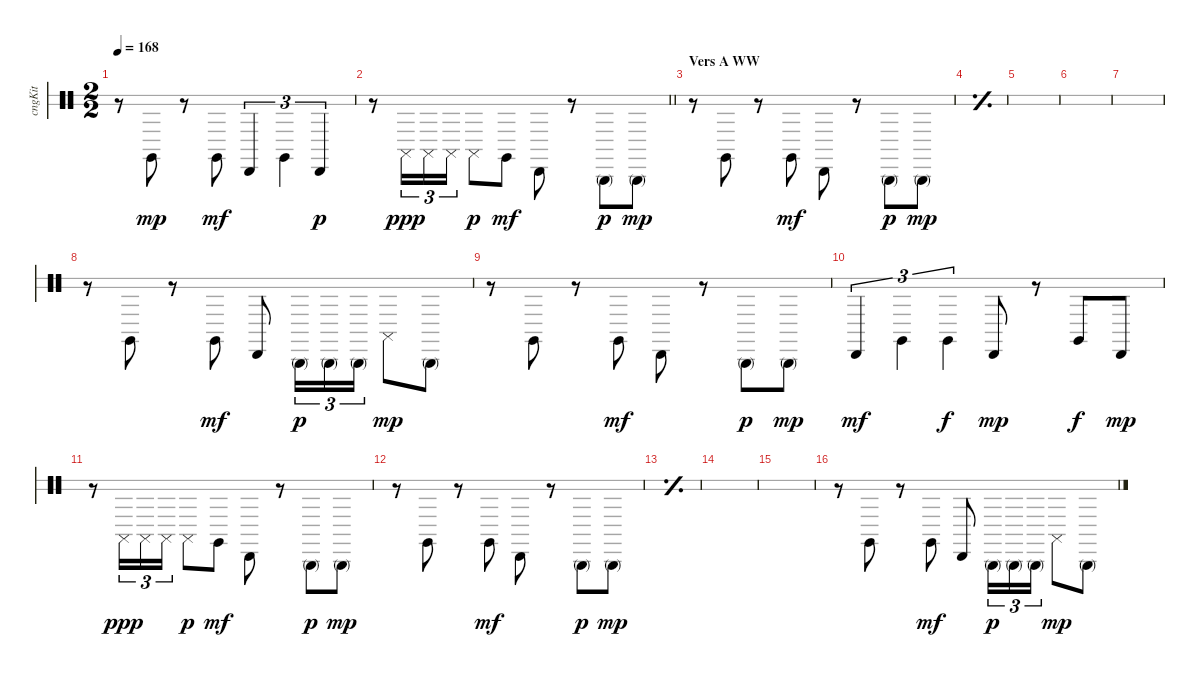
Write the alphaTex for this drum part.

\bracketExtendMode groupsimilarinstruments
\multiTrackTrackNamePolicy hidden
\otherSystemsTrackNameOrientation horizontal
\track ("Congas" "cngKit") {instrument percussion}
\staff {score 2}
\articulation defaults
\ts (2 2)
\tempo 168
\clef neutral
\ks c
r.8{dy mp beam Down} "Conga high (hit)".8{beam Down} r.8{beam Down} "Conga high (hit)".8{dy mf beam Down} "Conga low (hit)".4{tu (3 2) beam Up} "Conga high (hit)".4{tu (3 2) beam Down} "Conga low (hit)".4{tu (3 2) dy p beam Up} |
\barLineRight lightlight
r.8{beam Down} "Conga high (slap)".16{tu (3 2) dy ppp beam Down} "Conga high (slap)".16{tu (3 2) beam Down} "Conga high (slap)".16{tu (3 2) beam Down} "Conga high (slap)".8{dy p beam Down} "Conga high (hit)".8{dy mf beam Down} "Conga low (hit)".8{beam Down} r.8{beam Down} "Conga high (mute)".8{dy p beam Down} "Conga high (mute)".8{dy mp beam Down} |
\section ("" "Vers A WW")
r.8{beam Down} "Conga high (hit)".8{beam Down} r.8{beam Down} "Conga high (hit)".8{dy mf beam Down} "Conga low (hit)".8{beam Down} r.8{beam Down} "Conga high (mute)".8{dy p beam Down} "Conga high (mute)".8{dy mp beam Down} |
\simile simple
|
|
|
|
\simile none
r.8{beam Down} "Conga high (hit)".8{beam Down} r.8{beam Down} "Conga high (hit)".8{dy mf beam Down} "Conga low (hit)".8{beam Up} "Conga high (mute)".16{tu (3 2) dy p beam Down} "Conga high (mute)".16{tu (3 2) beam Down} "Conga high (mute)".16{tu (3 2) beam Down} "Conga high (slap)".8{dy mp beam Down} "Conga high (mute)".8{beam Down} |
r.8{beam Down} "Conga high (hit)".8{beam Down} r.8{beam Down} "Conga high (hit)".8{dy mf beam Down} "Conga low (hit)".8{beam Down} r.8{beam Down} "Conga high (mute)".8{dy p beam Down} "Conga high (mute)".8{dy mp beam Down} |
"Conga low (hit)".4{tu (3 2) dy mf beam Up} "Conga high (hit)".4{tu (3 2) beam Down} "Conga high (hit)".4{tu (3 2) dy f beam Down} "Conga low (hit)".8{dy mp beam Up} r.8{beam Up} "Conga high (hit)".8{dy f beam Up} "Conga low (hit)".8{dy mp beam Up} |
r.8{beam Down} "Conga high (slap)".16{tu (3 2) dy ppp beam Down} "Conga high (slap)".16{tu (3 2) beam Down} "Conga high (slap)".16{tu (3 2) beam Down} "Conga high (slap)".8{dy p beam Down} "Conga high (hit)".8{dy mf beam Down} "Conga low (hit)".8{beam Down} r.8{beam Down} "Conga high (mute)".8{dy p beam Down} "Conga high (mute)".8{dy mp beam Down} |
r.8{beam Down} "Conga high (hit)".8{beam Down} r.8{beam Down} "Conga high (hit)".8{dy mf beam Down} "Conga low (hit)".8{beam Down} r.8{beam Down} "Conga high (mute)".8{dy p beam Down} "Conga high (mute)".8{dy mp beam Down} |
\simile simple
|
|
|
\simile none
r.8{beam Down} "Conga high (hit)".8{beam Down} r.8{beam Down} "Conga high (hit)".8{dy mf beam Down} "Conga low (hit)".8{beam Up} "Conga high (mute)".16{tu (3 2) dy p beam Down} "Conga high (mute)".16{tu (3 2) beam Down} "Conga high (mute)".16{tu (3 2) beam Down} "Conga high (slap)".8{dy mp beam Down} "Conga high (mute)".8{beam Down}
